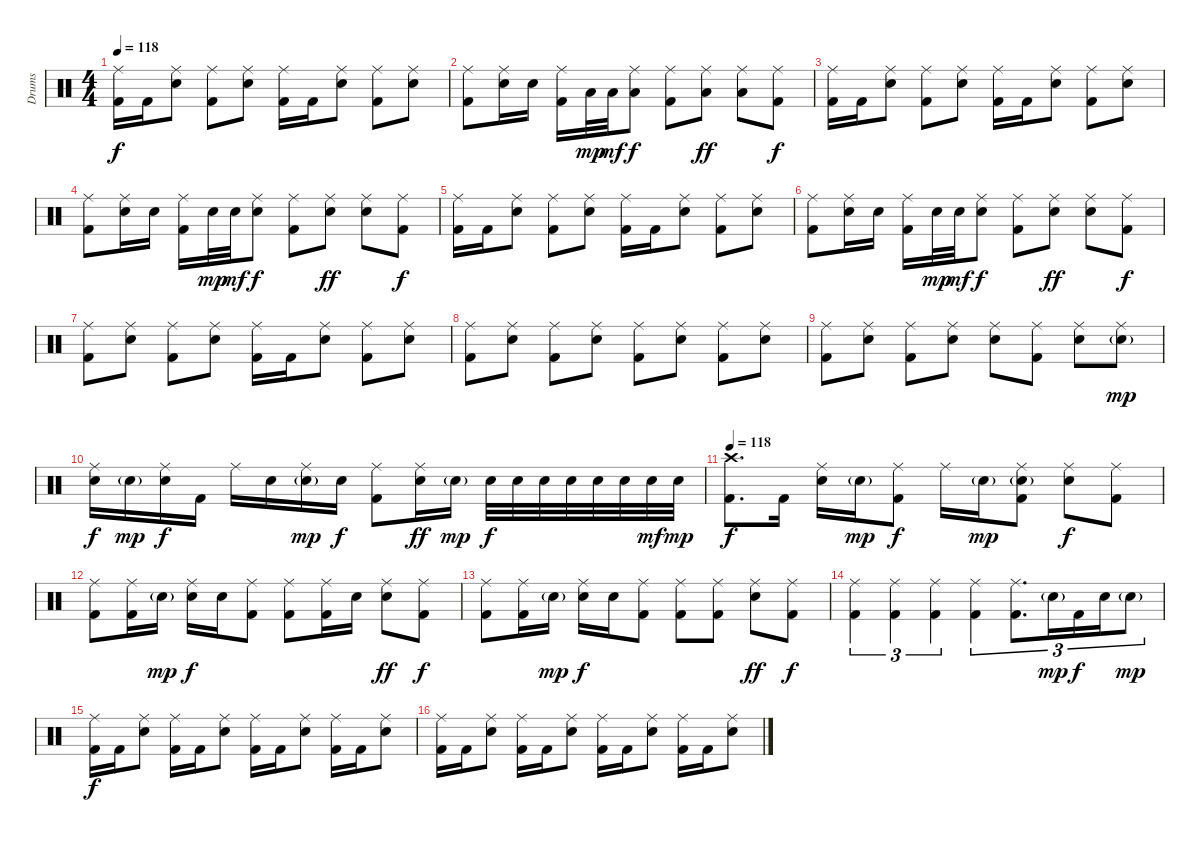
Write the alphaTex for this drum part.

\track ("Drums" "Drums") {instrument percussion}
\staff {score}
\articulation defaults
\ts (4 4)
\tempo 118
\clef neutral
\ks c
("Ride (middle)" "Kick (hit) 2").16{dy f} "Kick (hit) 2".16 ("Ride (middle)" "Electric Snare (hit)").8 ("Ride (middle)" "Kick (hit) 2").8 ("Ride (middle)" "Electric Snare (hit)").8 ("Ride (middle)" "Kick (hit) 2").16 "Kick (hit) 2".16 ("Ride (middle)" "Electric Snare (hit)").8 ("Ride (middle)" "Kick (hit) 2").8 ("Ride (middle)" "Electric Snare (hit)").8 |
("Ride (middle)" "Kick (hit) 2").8 ("Ride (middle)" "Electric Snare (hit)").16 "Electric Snare (hit)".16 ("Ride (middle)" "Kick (hit) 2").16 "Low Tom (hit)".32{dy mp} "Low Tom (hit)".32{dy mf} ("Ride (middle)" "Low Tom (hit)").8{dy f} ("Ride (middle)" "Kick (hit) 2").8 ("Ride (middle)" "Low Tom (hit)").8{dy ff} ("Ride (middle)" "Low Tom (hit)").8 ("Ride (middle)" "Kick (hit) 2").8{dy f} |
("Ride (middle)" "Kick (hit) 2").16 "Kick (hit) 2".16 ("Ride (middle)" "Electric Snare (hit)").8 ("Ride (middle)" "Kick (hit) 2").8 ("Ride (middle)" "Electric Snare (hit)").8 ("Ride (middle)" "Kick (hit) 2").16 "Kick (hit) 2".16 ("Ride (middle)" "Electric Snare (hit)").8 ("Ride (middle)" "Kick (hit) 2").8 ("Ride (middle)" "Electric Snare (hit)").8 |
("Ride (middle)" "Kick (hit) 2").8 ("Ride (middle)" "Electric Snare (hit)").16 "Electric Snare (hit)".16 ("Ride (middle)" "Kick (hit) 2").16 "Electric Snare (hit)".32{dy mp} "Electric Snare (hit)".32{dy mf} ("Ride (middle)" "Electric Snare (hit)").8{dy f} ("Ride (middle)" "Kick (hit) 2").8 ("Ride (middle)" "Electric Snare (hit)").8{dy ff} ("Ride (middle)" "Electric Snare (hit)").8 ("Ride (middle)" "Kick (hit) 2").8{dy f} |
("Ride (middle)" "Kick (hit) 2").16 "Kick (hit) 2".16 ("Ride (middle)" "Electric Snare (hit)").8 ("Ride (middle)" "Kick (hit) 2").8 ("Ride (middle)" "Electric Snare (hit)").8 ("Ride (middle)" "Kick (hit) 2").16 "Kick (hit) 2".16 ("Ride (middle)" "Electric Snare (hit)").8 ("Ride (middle)" "Kick (hit) 2").8 ("Ride (middle)" "Electric Snare (hit)").8 |
("Ride (middle)" "Kick (hit) 2").8 ("Ride (middle)" "Electric Snare (hit)").16 "Electric Snare (hit)".16 ("Ride (middle)" "Kick (hit) 2").16 "Electric Snare (hit)".32{dy mp} "Electric Snare (hit)".32{dy mf} ("Ride (middle)" "Electric Snare (hit)").8{dy f} ("Ride (middle)" "Kick (hit) 2").8 ("Ride (middle)" "Electric Snare (hit)").8{dy ff} ("Ride (middle)" "Electric Snare (hit)").8 ("Ride (middle)" "Kick (hit) 2").8{dy f} |
("Ride (middle)" "Kick (hit) 2").8 ("Ride (middle)" "Electric Snare (hit)").8 ("Ride (middle)" "Kick (hit) 2").8 ("Ride (middle)" "Electric Snare (hit)").8 ("Ride (middle)" "Kick (hit) 2").16 "Kick (hit) 2".16 ("Ride (middle)" "Electric Snare (hit)").8 ("Ride (middle)" "Kick (hit) 2").8 ("Ride (middle)" "Electric Snare (hit)").8 |
("Ride (middle)" "Kick (hit) 2").8 ("Ride (middle)" "Electric Snare (hit)").8 ("Ride (middle)" "Kick (hit) 2").8 ("Ride (middle)" "Electric Snare (hit)").8 ("Ride (middle)" "Kick (hit) 2").8 ("Ride (middle)" "Electric Snare (hit)").8 ("Ride (middle)" "Kick (hit) 2").8 ("Ride (middle)" "Electric Snare (hit)").8 |
("Ride (middle)" "Kick (hit) 2").8 ("Ride (middle)" "Electric Snare (hit)").8 ("Ride (middle)" "Kick (hit) 2").8 ("Ride (middle)" "Electric Snare (hit)").8 ("Ride (middle)" "Electric Snare (hit)").8 ("Ride (middle)" "Kick (hit) 2").8 ("Ride (middle)" "Electric Snare (hit)").8 ("Ride (middle)" "Electric Snare (hit)"{g}).8{dy mp} |
("Ride (middle)" "Electric Snare (hit)").16{dy f} "Electric Snare (hit)"{g}.16{dy mp} ("Ride (middle)" "Electric Snare (hit)").16{dy f} "Kick (hit) 2".16 "Ride (middle)".16 "Electric Snare (hit)".16 ("Ride (middle)" "Electric Snare (hit)"{g}).16{dy mp} "Electric Snare (hit)".16{dy f} ("Ride (middle)" "Kick (hit) 2").8 ("Ride (middle)" "Electric Snare (hit)").16{dy ff} "Electric Snare (hit)"{g}.16{dy mp} "Electric Snare (hit)".32{dy f} "Electric Snare (hit)".32 "Electric Snare (hit)".32 "Electric Snare (hit)".32 "Electric Snare (hit)".32 "Electric Snare (hit)".32 "Electric Snare (hit)".32{dy mf} "Electric Snare (hit)".32{dy mp} |
\tempo 118
("Crash high (hit)" "Kick (hit) 2").8{d dy f} "Kick (hit) 2".16 ("Ride (middle)" "Electric Snare (hit)").16 "Electric Snare (hit)"{g}.16{dy mp} ("Ride (middle)" "Kick (hit) 2").8{dy f} "Ride (middle)".16 "Electric Snare (hit)"{g}.16{dy mp} ("Ride (middle)" "Electric Snare (hit)"{g} "Kick (hit) 2").8 ("Ride (middle)" "Electric Snare (hit)").8{dy f} ("Ride (middle)" "Kick (hit) 2").8 |
("Ride (middle)" "Kick (hit) 2").8 ("Ride (middle)" "Kick (hit) 2").16 "Electric Snare (hit)"{g}.16{dy mp} ("Ride (middle)" "Electric Snare (hit)").16{dy f} "Electric Snare (hit)".16 ("Ride (middle)" "Kick (hit) 2").8 ("Ride (middle)" "Kick (hit) 2").8 ("Ride (middle)" "Kick (hit) 2").16 "Electric Snare (hit)".16 ("Ride (middle)" "Electric Snare (hit)").8{dy ff} ("Ride (middle)" "Kick (hit) 2").8{dy f} |
("Ride (middle)" "Kick (hit) 2").8 ("Ride (middle)" "Kick (hit) 2").16 "Electric Snare (hit)"{g}.16{dy mp} ("Ride (middle)" "Electric Snare (hit)").16{dy f} "Electric Snare (hit)".16 ("Ride (middle)" "Kick (hit) 2").8 ("Ride (middle)" "Kick (hit) 2").8 ("Ride (middle)" "Kick (hit) 2").8 ("Ride (middle)" "Electric Snare (hit)").8{dy ff} ("Ride (middle)" "Kick (hit) 2").8{dy f} |
("Ride (middle)" "Kick (hit) 2").4{tu (3 2)} ("Ride (middle)" "Kick (hit) 2").4{tu (3 2)} ("Ride (middle)" "Kick (hit) 2").4{tu (3 2)} ("Ride (middle)" "Kick (hit) 2").4{tu (3 2)} ("Ride (middle)" "Kick (hit) 2").8{d tu (3 2)} "Electric Snare (hit)"{g}.16{tu (3 2) dy mp} "Kick (hit) 2".16{tu (3 2) dy f} "Electric Snare (hit)".16{tu (3 2)} "Electric Snare (hit)"{g}.8{tu (3 2) dy mp} |
("Ride (middle)" "Kick (hit) 2").16{dy f} "Kick (hit) 2".16 ("Ride (middle)" "Electric Snare (hit)").8 ("Ride (middle)" "Kick (hit) 2").16 "Kick (hit) 2".16 ("Ride (middle)" "Electric Snare (hit)").8 ("Ride (middle)" "Kick (hit) 2").16 "Kick (hit) 2".16 ("Ride (middle)" "Electric Snare (hit)").8 ("Ride (middle)" "Kick (hit) 2").16 "Kick (hit) 2".16 ("Ride (middle)" "Electric Snare (hit)").8 |
("Ride (middle)" "Kick (hit) 2").16 "Kick (hit) 2".16 ("Ride (middle)" "Electric Snare (hit)").8 ("Ride (middle)" "Kick (hit) 2").16 "Kick (hit) 2".16 ("Ride (middle)" "Electric Snare (hit)").8 ("Ride (middle)" "Kick (hit) 2").16 "Kick (hit) 2".16 ("Ride (middle)" "Electric Snare (hit)").8 ("Ride (middle)" "Kick (hit) 2").16 "Kick (hit) 2".16 ("Ride (middle)" "Electric Snare (hit)").8
